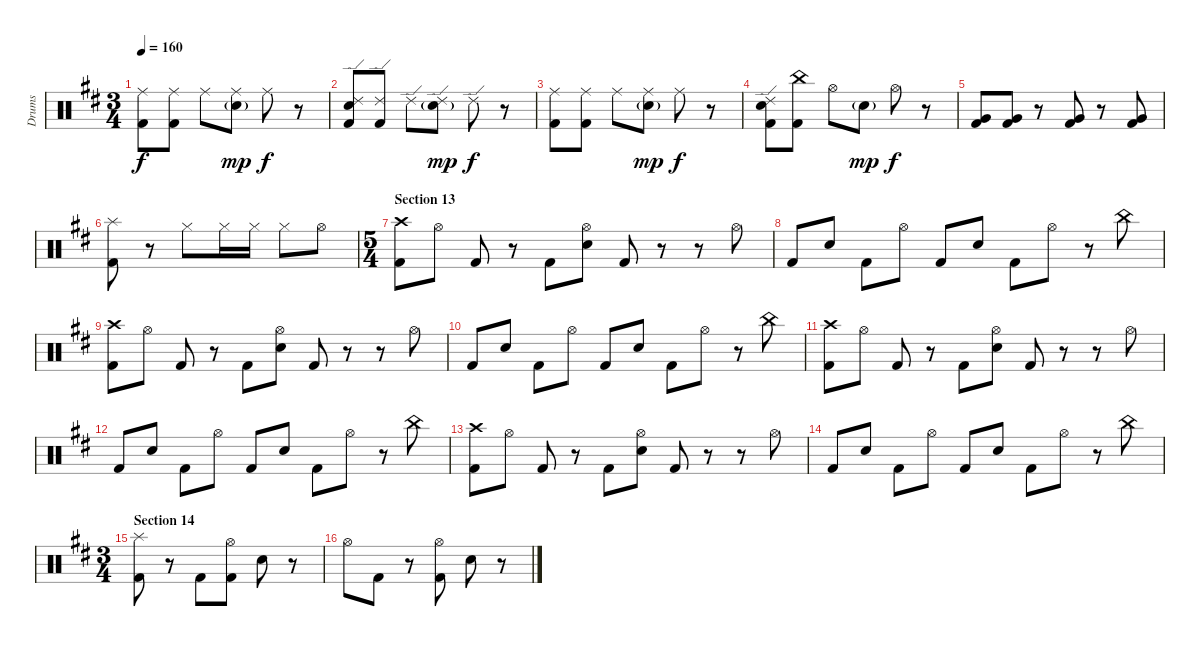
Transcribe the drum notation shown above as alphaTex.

\track ("Drums" "Drums") {instrument percussion}
\staff {score}
\articulation defaults
\ts (3 4)
\tempo 160
\clef neutral
\ks bminor
("Ride (middle)" "Kick (hit) 2").8{dy f} ("Ride (middle)" "Kick (hit) 2").8 "Ride (middle)".8 ("Ride (middle)" "Snare (hit) 2"{g}).8{dy mp} "Ride (middle)".8{dy f} r.8 |
("Ride (edge) 2" "Snare (hit) 2" "Kick (hit) 2").8 ("Ride (edge) 2" "Kick (hit) 2").8 "Ride (edge) 2".8 ("Ride (edge) 2" "Snare (hit) 2"{g}).8{dy mp} "Ride (edge) 2".8{dy f} r.8 |
("Ride (middle)" "Kick (hit) 2").8 ("Ride (middle)" "Kick (hit) 2").8 "Ride (middle)".8 ("Ride (middle)" "Snare (hit) 2"{g}).8{dy mp} "Ride (middle)".8{dy f} r.8 |
("Ride (edge) 2" "Snare (hit) 2" "Kick (hit) 2").8 ("China (hit)" "Kick (hit) 2").8 "Hi-Hat (open)".8 "Snare (hit) 2"{g}.8{dy mp} "Hi-Hat (open)".8{dy f} r.8 |
("Very Low Tom (hit)" "Kick (hit) 2").8 ("Very Low Tom (hit)" "Kick (hit) 2").8 r.8 ("Very Low Tom (hit)" "Kick (hit) 2").8 r.8 ("Very Low Tom (hit)" "Kick (hit) 2").8 |
("Splash (hit)" "Kick (hit) 2").8 r.8 "Hi-Hat (closed)".8 "Hi-Hat (closed)".16 "Hi-Hat (closed)".16 "Hi-Hat (closed)".8 "Hi-Hat (open)".8 |
\ts (5 4)
\section ("" "Section 13")
("Crash high (hit)" "Kick (hit) 2").8 "Hi-Hat (open)".8 "Kick (hit) 2".8 r.8 "Kick (hit) 2".8 ("Hi-Hat (open)" "Snare (hit) 2").8 "Kick (hit) 2".8 r.8 r.8 "Hi-Hat (open)".8 |
"Kick (hit) 2".8 "Snare (hit) 2".8 "Kick (hit) 2".8 "Hi-Hat (open)".8 "Kick (hit) 2".8 "Snare (hit) 2".8 "Kick (hit) 2".8 "Hi-Hat (open)".8 r.8 "China (hit)".8 |
("Crash high (hit)" "Kick (hit) 2").8 "Hi-Hat (open)".8 "Kick (hit) 2".8 r.8 "Kick (hit) 2".8 ("Hi-Hat (open)" "Snare (hit) 2").8 "Kick (hit) 2".8 r.8 r.8 "Hi-Hat (open)".8 |
"Kick (hit) 2".8 "Snare (hit) 2".8 "Kick (hit) 2".8 "Hi-Hat (open)".8 "Kick (hit) 2".8 "Snare (hit) 2".8 "Kick (hit) 2".8 "Hi-Hat (open)".8 r.8 "China (hit)".8 |
("Crash high (hit)" "Kick (hit) 2").8 "Hi-Hat (open)".8 "Kick (hit) 2".8 r.8 "Kick (hit) 2".8 ("Hi-Hat (open)" "Snare (hit) 2").8 "Kick (hit) 2".8 r.8 r.8 "Hi-Hat (open)".8 |
"Kick (hit) 2".8 "Snare (hit) 2".8 "Kick (hit) 2".8 "Hi-Hat (open)".8 "Kick (hit) 2".8 "Snare (hit) 2".8 "Kick (hit) 2".8 "Hi-Hat (open)".8 r.8 "China (hit)".8 |
("Crash high (hit)" "Kick (hit) 2").8 "Hi-Hat (open)".8 "Kick (hit) 2".8 r.8 "Kick (hit) 2".8 ("Hi-Hat (open)" "Snare (hit) 2").8 "Kick (hit) 2".8 r.8 r.8 "Hi-Hat (open)".8 |
"Kick (hit) 2".8 "Snare (hit) 2".8 "Kick (hit) 2".8 "Hi-Hat (open)".8 "Kick (hit) 2".8 "Snare (hit) 2".8 "Kick (hit) 2".8 "Hi-Hat (open)".8 r.8 "China (hit)".8 |
\ts (3 4)
\section ("" "Section 14")
("Splash (hit)" "Kick (hit) 2").8 r.8 "Kick (hit) 2".8 ("Hi-Hat (open)" "Kick (hit) 2").8 "Snare (hit) 2".8 r.8 |
"Hi-Hat (open)".8 "Kick (hit) 2".8 r.8 ("Hi-Hat (open)" "Kick (hit) 2").8 "Snare (hit) 2".8 r.8
